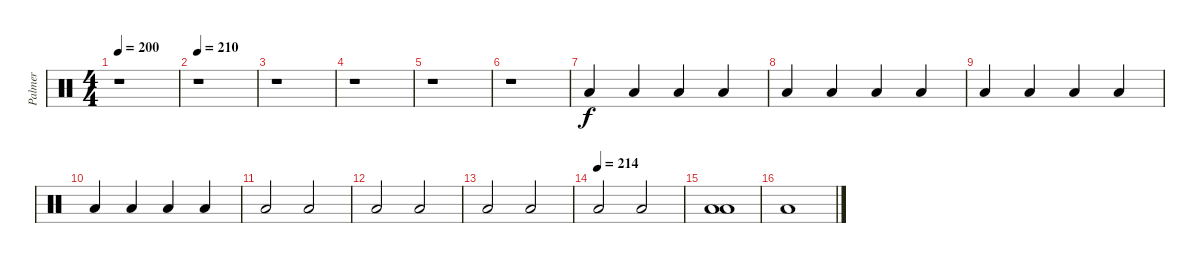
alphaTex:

\track ("Palmer" "Palmer") {instrument percussion}
\staff {score}
\articulation defaults
\ts (4 4)
\tempo 200
\clef neutral
\ks c
r.1{dy f} |
\tempo 210
r.1 |
r.1 |
r.1 |
r.1 |
r.1 |
"Low Floor Tom (hit)".4 "Low Floor Tom (hit)".4 "Low Floor Tom (hit)".4 "Low Floor Tom (hit)".4 |
"Low Floor Tom (hit)".4 "Low Floor Tom (hit)".4 "Low Floor Tom (hit)".4 "Low Floor Tom (hit)".4 |
"Low Floor Tom (hit)".4 "Low Floor Tom (hit)".4 "Low Floor Tom (hit)".4 "Low Floor Tom (hit)".4 |
"Low Floor Tom (hit)".4 "Low Floor Tom (hit)".4 "Low Floor Tom (hit)".4 "Low Floor Tom (hit)".4 |
"Low Floor Tom (hit)".2 "Low Floor Tom (hit)".2 |
"Low Floor Tom (hit)".2 "Low Floor Tom (hit)".2 |
"Low Floor Tom (hit)".2 "Low Floor Tom (hit)".2 |
\tempo (214)
"Low Floor Tom (hit)".2 "Low Floor Tom (hit)".2 |
("Low Tom (hit)" "Low Floor Tom (hit)").1 |
"Low Tom (hit)".1
